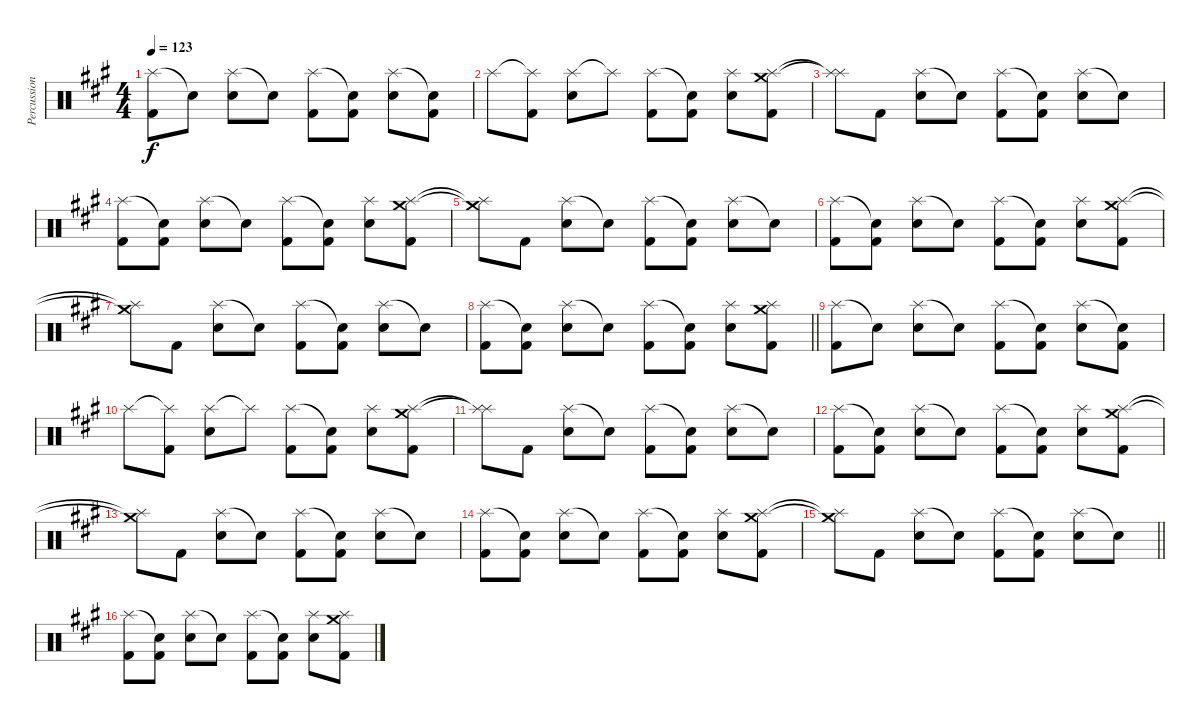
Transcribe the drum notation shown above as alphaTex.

\track ("Percussion" "Percussion") {instrument percussion}
\staff {score}
\articulation defaults
\ts (4 4)
\tempo 123
\clef neutral
\ks a
("Splash (hit)" "Kick (hit) 2").8{dy f} "Snare (hit)"{t}.8 ("Splash (hit)" "Electric Snare (hit)").8 "Snare (hit)"{t}.8 ("Splash (hit)" "Kick (hit) 2").8 ("Snare (hit)"{t} "Kick (hit) 2").8 ("Splash (hit)" "Electric Snare (hit)").8 ("Snare (hit)"{t} "Kick (hit) 2").8 |
"Splash (hit)".8 ("Splash (hit)"{t} "Kick (hit) 2").8 ("Splash (hit)" "Electric Snare (hit)").8 "Splash (hit)"{t}.8 ("Splash (hit)" "Kick (hit) 2").8 ("Snare (hit)"{t} "Kick (hit) 2").8 ("Splash (hit)" "Electric Snare (hit)").8 ("Crash medium (hit)" "Splash (hit)" "Kick (hit) 2").8 |
("Splash (hit)"{t} "Splash (hit)"{t}).8 "Kick (hit) 2".8 ("Splash (hit)" "Electric Snare (hit)").8 "Snare (hit)"{t}.8 ("Splash (hit)" "Kick (hit) 2").8 ("Snare (hit)"{t} "Kick (hit) 2").8 ("Splash (hit)" "Electric Snare (hit)").8 "Snare (hit)"{t}.8 |
("Splash (hit)" "Kick (hit) 2").8 ("Snare (hit)"{t} "Kick (hit) 2").8 ("Splash (hit)" "Electric Snare (hit)").8 "Snare (hit)"{t}.8 ("Splash (hit)" "Kick (hit) 2").8 ("Snare (hit)"{t} "Kick (hit) 2").8 ("Splash (hit)" "Electric Snare (hit)").8 ("Crash medium (hit)" "Splash (hit)" "Kick (hit) 2").8 |
("Crash medium (hit)"{t} "Splash (hit)"{t}).8 "Kick (hit) 2".8 ("Splash (hit)" "Electric Snare (hit)").8 "Snare (hit)"{t}.8 ("Splash (hit)" "Kick (hit) 2").8 ("Snare (hit)"{t} "Kick (hit) 2").8 ("Splash (hit)" "Electric Snare (hit)").8 "Snare (hit)"{t}.8 |
("Splash (hit)" "Kick (hit) 2").8 ("Snare (hit)"{t} "Kick (hit) 2").8 ("Splash (hit)" "Electric Snare (hit)").8 "Snare (hit)"{t}.8 ("Splash (hit)" "Kick (hit) 2").8 ("Snare (hit)"{t} "Kick (hit) 2").8 ("Splash (hit)" "Electric Snare (hit)").8 ("Crash medium (hit)" "Splash (hit)" "Kick (hit) 2").8 |
("Crash medium (hit)"{t} "Splash (hit)"{t}).8 "Kick (hit) 2".8 ("Splash (hit)" "Electric Snare (hit)").8 "Snare (hit)"{t}.8 ("Splash (hit)" "Kick (hit) 2").8 ("Snare (hit)"{t} "Kick (hit) 2").8 ("Splash (hit)" "Electric Snare (hit)").8 "Snare (hit)"{t}.8 |
\barLineRight lightlight
("Splash (hit)" "Kick (hit) 2").8 ("Snare (hit)"{t} "Kick (hit) 2").8 ("Splash (hit)" "Electric Snare (hit)").8 "Snare (hit)"{t}.8 ("Splash (hit)" "Kick (hit) 2").8 ("Snare (hit)"{t} "Kick (hit) 2").8 ("Splash (hit)" "Electric Snare (hit)").8 ("Crash medium (hit)" "Splash (hit)" "Kick (hit) 2").8 |
("Splash (hit)" "Kick (hit) 2").8 "Snare (hit)"{t}.8 ("Splash (hit)" "Electric Snare (hit)").8 "Snare (hit)"{t}.8 ("Splash (hit)" "Kick (hit) 2").8 ("Snare (hit)"{t} "Kick (hit) 2").8 ("Splash (hit)" "Electric Snare (hit)").8 ("Snare (hit)"{t} "Kick (hit) 2").8 |
"Splash (hit)".8 ("Splash (hit)"{t} "Kick (hit) 2").8 ("Splash (hit)" "Electric Snare (hit)").8 "Splash (hit)"{t}.8 ("Splash (hit)" "Kick (hit) 2").8 ("Snare (hit)"{t} "Kick (hit) 2").8 ("Splash (hit)" "Electric Snare (hit)").8 ("Crash medium (hit)" "Splash (hit)" "Kick (hit) 2").8 |
("Splash (hit)"{t} "Splash (hit)"{t}).8 "Kick (hit) 2".8 ("Splash (hit)" "Electric Snare (hit)").8 "Snare (hit)"{t}.8 ("Splash (hit)" "Kick (hit) 2").8 ("Snare (hit)"{t} "Kick (hit) 2").8 ("Splash (hit)" "Electric Snare (hit)").8 "Snare (hit)"{t}.8 |
("Splash (hit)" "Kick (hit) 2").8 ("Snare (hit)"{t} "Kick (hit) 2").8 ("Splash (hit)" "Electric Snare (hit)").8 "Snare (hit)"{t}.8 ("Splash (hit)" "Kick (hit) 2").8 ("Snare (hit)"{t} "Kick (hit) 2").8 ("Splash (hit)" "Electric Snare (hit)").8 ("Crash medium (hit)" "Splash (hit)" "Kick (hit) 2").8 |
("Crash medium (hit)"{t} "Splash (hit)"{t}).8 "Kick (hit) 2".8 ("Splash (hit)" "Electric Snare (hit)").8 "Snare (hit)"{t}.8 ("Splash (hit)" "Kick (hit) 2").8 ("Snare (hit)"{t} "Kick (hit) 2").8 ("Splash (hit)" "Electric Snare (hit)").8 "Snare (hit)"{t}.8 |
("Splash (hit)" "Kick (hit) 2").8 ("Snare (hit)"{t} "Kick (hit) 2").8 ("Splash (hit)" "Electric Snare (hit)").8 "Snare (hit)"{t}.8 ("Splash (hit)" "Kick (hit) 2").8 ("Snare (hit)"{t} "Kick (hit) 2").8 ("Splash (hit)" "Electric Snare (hit)").8 ("Crash medium (hit)" "Splash (hit)" "Kick (hit) 2").8 |
\barLineRight lightlight
("Crash medium (hit)"{t} "Splash (hit)"{t}).8 "Kick (hit) 2".8 ("Splash (hit)" "Electric Snare (hit)").8 "Snare (hit)"{t}.8 ("Splash (hit)" "Kick (hit) 2").8 ("Snare (hit)"{t} "Kick (hit) 2").8 ("Splash (hit)" "Electric Snare (hit)").8 "Snare (hit)"{t}.8 |
("Splash (hit)" "Kick (hit) 2").8 ("Snare (hit)"{t} "Kick (hit) 2").8 ("Splash (hit)" "Electric Snare (hit)").8 "Snare (hit)"{t}.8 ("Splash (hit)" "Kick (hit) 2").8 ("Snare (hit)"{t} "Kick (hit) 2").8 ("Splash (hit)" "Electric Snare (hit)").8 ("Crash medium (hit)" "Splash (hit)" "Kick (hit) 2").8
